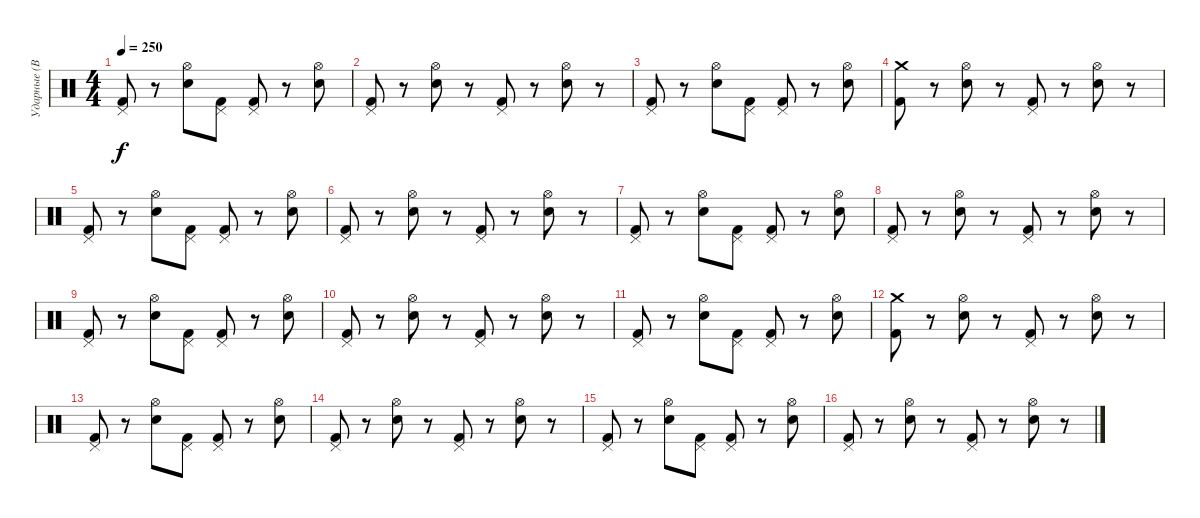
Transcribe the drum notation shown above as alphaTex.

\track ("Ударные (Вася)" "Ударные (В") {instrument percussion}
\staff {score}
\articulation defaults
\ts (4 4)
\tempo 250
\clef neutral
\ks c
("Pedal Hi-Hat (hit)" "Kick (hit) 2").8{dy f} r.8 ("Hi-Hat (open)" "Electric Snare (hit)").8 ("Pedal Hi-Hat (hit)" "Kick (hit) 2").8 ("Pedal Hi-Hat (hit)" "Kick (hit) 2").8 r.8 ("Hi-Hat (open)" "Electric Snare (hit)").8 |
("Pedal Hi-Hat (hit)" "Kick (hit) 2").8 r.8 ("Hi-Hat (open)" "Electric Snare (hit)").8 r.8 ("Pedal Hi-Hat (hit)" "Kick (hit) 2").8 r.8 ("Hi-Hat (open)" "Electric Snare (hit)").8 r.8 |
("Pedal Hi-Hat (hit)" "Kick (hit) 2").8 r.8 ("Hi-Hat (open)" "Electric Snare (hit)").8 ("Pedal Hi-Hat (hit)" "Kick (hit) 2").8 ("Pedal Hi-Hat (hit)" "Kick (hit) 2").8 r.8 ("Hi-Hat (open)" "Electric Snare (hit)").8 |
("Crash medium (hit)" "Kick (hit) 2").8 r.8 ("Hi-Hat (open)" "Electric Snare (hit)").8 r.8 ("Pedal Hi-Hat (hit)" "Kick (hit) 2").8 r.8 ("Hi-Hat (open)" "Electric Snare (hit)").8 r.8 |
("Pedal Hi-Hat (hit)" "Kick (hit) 2").8 r.8 ("Hi-Hat (open)" "Electric Snare (hit)").8 ("Pedal Hi-Hat (hit)" "Kick (hit) 2").8 ("Pedal Hi-Hat (hit)" "Kick (hit) 2").8 r.8 ("Hi-Hat (open)" "Electric Snare (hit)").8 |
("Pedal Hi-Hat (hit)" "Kick (hit) 2").8 r.8 ("Hi-Hat (open)" "Electric Snare (hit)").8 r.8 ("Pedal Hi-Hat (hit)" "Kick (hit) 2").8 r.8 ("Hi-Hat (open)" "Electric Snare (hit)").8 r.8 |
("Pedal Hi-Hat (hit)" "Kick (hit) 2").8 r.8 ("Hi-Hat (open)" "Electric Snare (hit)").8 ("Pedal Hi-Hat (hit)" "Kick (hit) 2").8 ("Pedal Hi-Hat (hit)" "Kick (hit) 2").8 r.8 ("Hi-Hat (open)" "Electric Snare (hit)").8 |
("Pedal Hi-Hat (hit)" "Kick (hit) 2").8 r.8 ("Hi-Hat (open)" "Electric Snare (hit)").8 r.8 ("Pedal Hi-Hat (hit)" "Kick (hit) 2").8 r.8 ("Hi-Hat (open)" "Electric Snare (hit)").8 r.8 |
("Pedal Hi-Hat (hit)" "Kick (hit) 2").8 r.8 ("Hi-Hat (open)" "Electric Snare (hit)").8 ("Pedal Hi-Hat (hit)" "Kick (hit) 2").8 ("Pedal Hi-Hat (hit)" "Kick (hit) 2").8 r.8 ("Hi-Hat (open)" "Electric Snare (hit)").8 |
("Pedal Hi-Hat (hit)" "Kick (hit) 2").8 r.8 ("Hi-Hat (open)" "Electric Snare (hit)").8 r.8 ("Pedal Hi-Hat (hit)" "Kick (hit) 2").8 r.8 ("Hi-Hat (open)" "Electric Snare (hit)").8 r.8 |
("Pedal Hi-Hat (hit)" "Kick (hit) 2").8 r.8 ("Hi-Hat (open)" "Electric Snare (hit)").8 ("Pedal Hi-Hat (hit)" "Kick (hit) 2").8 ("Pedal Hi-Hat (hit)" "Kick (hit) 2").8 r.8 ("Hi-Hat (open)" "Electric Snare (hit)").8 |
("Crash medium (hit)" "Kick (hit) 2").8 r.8 ("Hi-Hat (open)" "Electric Snare (hit)").8 r.8 ("Pedal Hi-Hat (hit)" "Kick (hit) 2").8 r.8 ("Hi-Hat (open)" "Electric Snare (hit)").8 r.8 |
("Pedal Hi-Hat (hit)" "Kick (hit) 2").8 r.8 ("Hi-Hat (open)" "Electric Snare (hit)").8 ("Pedal Hi-Hat (hit)" "Kick (hit) 2").8 ("Pedal Hi-Hat (hit)" "Kick (hit) 2").8 r.8 ("Hi-Hat (open)" "Electric Snare (hit)").8 |
("Pedal Hi-Hat (hit)" "Kick (hit) 2").8 r.8 ("Hi-Hat (open)" "Electric Snare (hit)").8 r.8 ("Pedal Hi-Hat (hit)" "Kick (hit) 2").8 r.8 ("Hi-Hat (open)" "Electric Snare (hit)").8 r.8 |
("Pedal Hi-Hat (hit)" "Kick (hit) 2").8 r.8 ("Hi-Hat (open)" "Electric Snare (hit)").8 ("Pedal Hi-Hat (hit)" "Kick (hit) 2").8 ("Pedal Hi-Hat (hit)" "Kick (hit) 2").8 r.8 ("Hi-Hat (open)" "Electric Snare (hit)").8 |
("Pedal Hi-Hat (hit)" "Kick (hit) 2").8 r.8 ("Hi-Hat (open)" "Electric Snare (hit)").8 r.8 ("Pedal Hi-Hat (hit)" "Kick (hit) 2").8 r.8 ("Hi-Hat (open)" "Electric Snare (hit)").8 r.8
